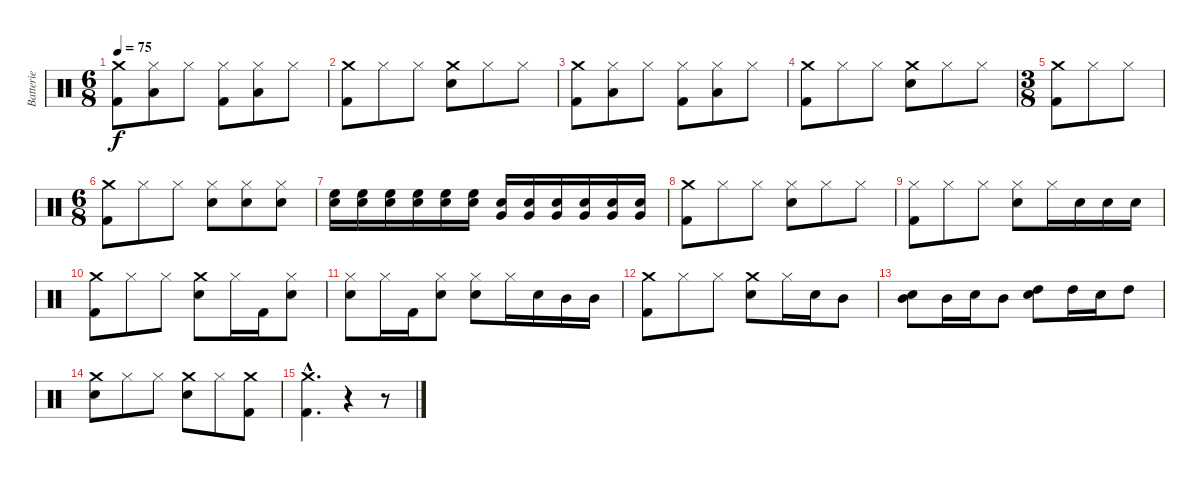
\track ("Batterie" "Batterie") {instrument percussion}
\staff {score}
\articulation defaults
\ts (6 8)
\tempo 75
\clef neutral
\ks c
("Kick (hit) 2" "Crash medium (hit)").8{dy f} ("Low Tom (hit)" "Hi-Hat (closed)").8 "Hi-Hat (closed)".8 ("Kick (hit) 2" "Hi-Hat (closed)").8 ("Low Tom (hit)" "Hi-Hat (closed)").8 "Hi-Hat (closed)".8 |
("Kick (hit) 2" "Crash medium (hit)").8 "Hi-Hat (closed)".8 "Hi-Hat (closed)".8 ("Snare (hit) 2" "Crash medium (hit)").8 "Hi-Hat (closed)".8 "Hi-Hat (closed)".8 |
("Kick (hit) 2" "Crash medium (hit)").8 ("Low Tom (hit)" "Hi-Hat (closed)").8 "Hi-Hat (closed)".8 ("Kick (hit) 2" "Hi-Hat (closed)").8 ("Low Tom (hit)" "Hi-Hat (closed)").8 "Hi-Hat (closed)".8 |
("Kick (hit) 2" "Crash medium (hit)").8 "Hi-Hat (closed)".8 "Hi-Hat (closed)".8 ("Snare (hit) 2" "Crash medium (hit)").8 "Hi-Hat (closed)".8 "Hi-Hat (closed)".8 |
\ts (3 8)
("Kick (hit) 2" "Crash medium (hit)").8 "Hi-Hat (closed)".8 "Hi-Hat (closed)".8 |
\ts (6 8)
("Kick (hit) 2" "Crash medium (hit)").8 "Hi-Hat (closed)".8 "Hi-Hat (closed)".8 ("Snare (hit) 2" "Hi-Hat (closed)").8 ("Hi-Hat (closed)" "Snare (hit) 2").8 ("Snare (hit) 2" "Hi-Hat (closed)").8 |
("High Floor Tom (hit)" "Snare (hit) 2").16 ("High Floor Tom (hit)" "Snare (hit) 2").16 ("High Floor Tom (hit)" "Snare (hit) 2").16 ("High Floor Tom (hit)" "Snare (hit) 2").16 ("High Floor Tom (hit)" "Snare (hit) 2").16 ("High Floor Tom (hit)" "Snare (hit) 2").16 ("Very Low Tom (hit)" "Snare (hit) 2").16 ("Very Low Tom (hit)" "Snare (hit) 2").16 ("Very Low Tom (hit)" "Snare (hit) 2").16 ("Very Low Tom (hit)" "Snare (hit) 2").16 ("Very Low Tom (hit)" "Snare (hit) 2").16 ("Very Low Tom (hit)" "Snare (hit) 2").16 |
("Kick (hit) 2" "Crash medium (hit)").8 "Hi-Hat (closed)".8 "Hi-Hat (closed)".8 ("Snare (hit) 2" "Hi-Hat (closed)").8 "Hi-Hat (closed)".8 "Hi-Hat (closed)".8 |
("Kick (hit) 2" "Hi-Hat (closed)").8 "Hi-Hat (closed)".8 "Hi-Hat (closed)".8 ("Snare (hit) 2" "Hi-Hat (closed)").8 "Hi-Hat (closed)".16 "Snare (hit) 2".16 "Snare (hit) 2".16 "Snare (hit) 2".16 |
("Kick (hit) 2" "Crash medium (hit)").8 "Hi-Hat (closed)".8 "Hi-Hat (closed)".8 ("Snare (hit) 2" "Crash medium (hit)").8 "Hi-Hat (closed)".16 "Kick (hit) 2".16 ("Snare (hit) 2" "Hi-Hat (closed)").8 |
("Snare (hit) 2" "Hi-Hat (closed)").8 "Hi-Hat (closed)".16 "Kick (hit) 2".16 ("Snare (hit) 2" "Hi-Hat (closed)").8 ("Snare (hit) 2" "Hi-Hat (closed)").8 "Hi-Hat (closed)".16 "Snare (hit) 2".16 "Mid Tom (hit)".16 "Mid Tom (hit)".16 |
("Kick (hit) 2" "Crash medium (hit)").8 "Hi-Hat (closed)".8 "Hi-Hat (closed)".8 ("Snare (hit) 2" "Crash medium (hit)").8 "Hi-Hat (closed)".16 "Snare (hit) 2".16 "Mid Tom (hit)".8 |
("Mid Tom (hit)" "Snare (hit) 2").8 "Mid Tom (hit)".16 "Snare (hit) 2".16 "Mid Tom (hit)".8 ("High Tom (hit)" "Snare (hit) 2").8 "High Tom (hit)".16 "Snare (hit) 2".16 "High Tom (hit)".8 |
("Snare (hit) 2" "Crash medium (hit)").8 "Hi-Hat (closed)".8 "Hi-Hat (closed)".8 ("Snare (hit) 2" "Crash medium (hit)").8 "Hi-Hat (closed)".8 ("Kick (hit) 2" "Crash medium (hit)").8 |
("Kick (hit) 2"{hac} "Crash medium (hit)"{hac}).4{d} r.4 r.8
